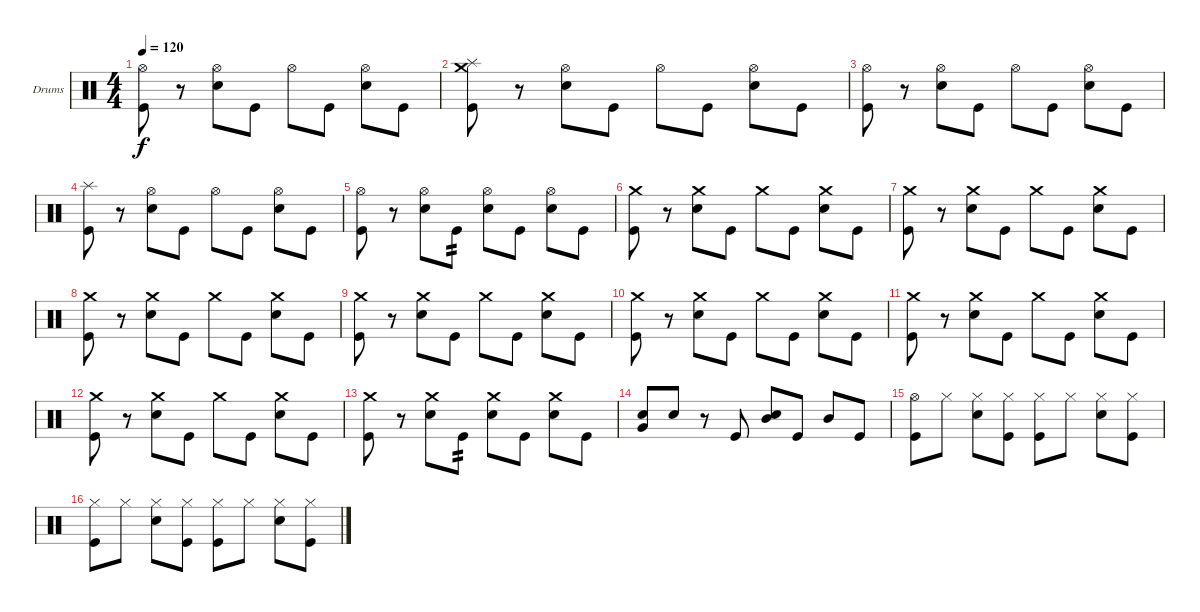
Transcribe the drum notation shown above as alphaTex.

\defaultSystemsLayout 4
\bracketExtendMode groupsimilarinstruments
\firstSystemTrackNameOrientation horizontal
\otherSystemsTrackNameOrientation horizontal
\track ("Drumkit" "Drums") {instrument percussion}
\staff {score}
\articulation defaults
\ts (4 4)
\tempo 120
\clef neutral
\ks c
("Kick (hit)" "Hi-Hat (open)").8{dy f} r.8 ("Snare (hit) 2" "Hi-Hat (open)").8 "Kick (hit)".8 "Hi-Hat (open)".8 "Kick (hit)".8 ("Snare (hit) 2" "Hi-Hat (open)").8 "Kick (hit)".8 |
("Kick (hit)" "Splash (hit)" "Crash medium (hit)").8 r.8 ("Snare (hit) 2" "Hi-Hat (open)").8 "Kick (hit)".8 "Hi-Hat (open)".8 "Kick (hit)".8 ("Snare (hit) 2" "Hi-Hat (open)").8 "Kick (hit)".8 |
("Kick (hit)" "Hi-Hat (open)").8 r.8 ("Snare (hit) 2" "Hi-Hat (open)").8 "Kick (hit)".8 "Hi-Hat (open)".8 "Kick (hit)".8 ("Snare (hit) 2" "Hi-Hat (open)").8 "Kick (hit)".8 |
("Kick (hit)" "Splash (hit)").8 r.8 ("Snare (hit) 2" "Hi-Hat (open)").8 "Kick (hit)".8 "Hi-Hat (open)".8 "Kick (hit)".8 ("Snare (hit) 2" "Hi-Hat (open)").8 "Kick (hit)".8 |
("Kick (hit)" "Hi-Hat (open)").8 r.8 ("Snare (hit) 2" "Hi-Hat (open)").8 "Kick (hit)".8{tp 2} ("Hi-Hat (open)" "Snare (hit) 2").8 "Kick (hit)".8 ("Snare (hit) 2" "Hi-Hat (open)").8 "Kick (hit)".8 |
("Kick (hit)" "Crash medium (hit)").8 r.8 ("Snare (hit) 2" "Crash medium (hit)").8 "Kick (hit)".8 "Crash medium (hit)".8 "Kick (hit)".8 ("Snare (hit) 2" "Crash medium (hit)").8 "Kick (hit)".8 |
("Kick (hit)" "Crash medium (hit)").8 r.8 ("Snare (hit) 2" "Crash medium (hit)").8 "Kick (hit)".8 "Crash medium (hit)".8 "Kick (hit)".8 ("Snare (hit) 2" "Crash medium (hit)").8 "Kick (hit)".8 |
("Kick (hit)" "Crash medium (hit)").8 r.8 ("Snare (hit) 2" "Crash medium (hit)").8 "Kick (hit)".8 "Crash medium (hit)".8 "Kick (hit)".8 ("Snare (hit) 2" "Crash medium (hit)").8 "Kick (hit)".8 |
("Kick (hit)" "Crash medium (hit)").8 r.8 ("Snare (hit) 2" "Crash medium (hit)").8 "Kick (hit)".8 "Crash medium (hit)".8 "Kick (hit)".8 ("Snare (hit) 2" "Crash medium (hit)").8 "Kick (hit)".8 |
("Kick (hit)" "Crash medium (hit)").8 r.8 ("Snare (hit) 2" "Crash medium (hit)").8 "Kick (hit)".8 "Crash medium (hit)".8 "Kick (hit)".8 ("Snare (hit) 2" "Crash medium (hit)").8 "Kick (hit)".8 |
("Kick (hit)" "Crash medium (hit)").8 r.8 ("Snare (hit) 2" "Crash medium (hit)").8 "Kick (hit)".8 "Crash medium (hit)".8 "Kick (hit)".8 ("Snare (hit) 2" "Crash medium (hit)").8 "Kick (hit)".8 |
("Kick (hit)" "Crash medium (hit)").8 r.8 ("Snare (hit) 2" "Crash medium (hit)").8 "Kick (hit)".8 "Crash medium (hit)".8 "Kick (hit)".8 ("Snare (hit) 2" "Crash medium (hit)").8 "Kick (hit)".8 |
("Kick (hit)" "Crash medium (hit)").8 r.8 ("Snare (hit) 2" "Crash medium (hit)").8 "Kick (hit)".8{tp 2} ("Snare (hit) 2" "Crash medium (hit)").8 "Kick (hit)".8 ("Snare (hit) 2" "Crash medium (hit)").8 "Kick (hit)".8 |
("Snare (hit) 2" "Very Low Tom (hit)").8 "Snare (hit) 2".8 r.8 "Kick (hit)".8 ("Snare (hit) 2" "Mid Tom (hit)").8 "Kick (hit)".8 "Mid Tom (hit)".8 "Kick (hit)".8 |
("Kick (hit)" "Hi-Hat (open)").8 "Hi-Hat (closed)".8 ("Snare (hit) 2" "Hi-Hat (closed)").8 ("Kick (hit)" "Hi-Hat (closed)").8 ("Kick (hit)" "Hi-Hat (closed)").8 "Hi-Hat (closed)".8 ("Snare (hit) 2" "Hi-Hat (closed)").8 ("Kick (hit)" "Hi-Hat (closed)").8 |
("Kick (hit)" "Hi-Hat (closed)").8 "Hi-Hat (closed)".8 ("Snare (hit) 2" "Hi-Hat (closed)").8 ("Kick (hit)" "Hi-Hat (closed)").8 ("Kick (hit)" "Hi-Hat (closed)").8 "Hi-Hat (closed)".8 ("Snare (hit) 2" "Hi-Hat (closed)").8 ("Kick (hit)" "Hi-Hat (closed)").8
